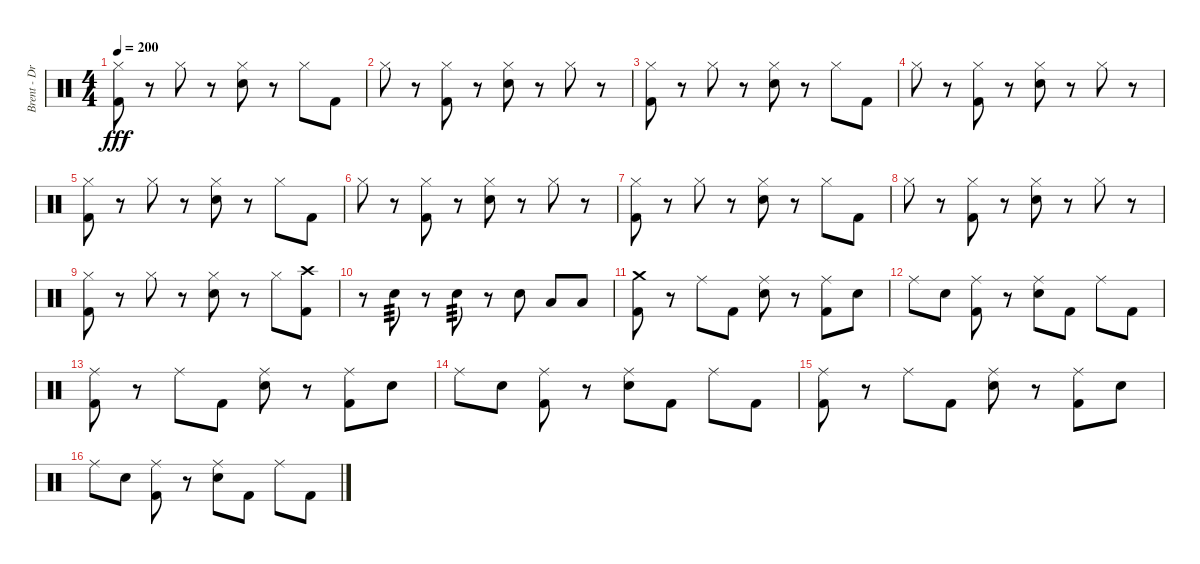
\track ("Brent - Drums" "Brent - Dr") {instrument percussion}
\staff {score}
\articulation defaults
\ts (4 4)
\tempo 200
\clef neutral
\ks c
("Hi-Hat (closed)" "Kick (hit) 2").8{dy fff} r.8 "Hi-Hat (closed)".8 r.8 ("Hi-Hat (closed)" "Snare (hit) 2").8 r.8 "Hi-Hat (closed)".8 "Kick (hit) 2".8 |
"Hi-Hat (closed)".8 r.8 ("Hi-Hat (closed)" "Kick (hit) 2").8 r.8 ("Hi-Hat (closed)" "Snare (hit) 2").8 r.8 "Hi-Hat (closed)".8 r.8 |
("Hi-Hat (closed)" "Kick (hit) 2").8 r.8 "Hi-Hat (closed)".8 r.8 ("Hi-Hat (closed)" "Snare (hit) 2").8 r.8 "Hi-Hat (closed)".8 "Kick (hit) 2".8 |
"Hi-Hat (closed)".8 r.8 ("Hi-Hat (closed)" "Kick (hit) 2").8 r.8 ("Hi-Hat (closed)" "Snare (hit) 2").8 r.8 "Hi-Hat (closed)".8 r.8 |
("Hi-Hat (closed)" "Kick (hit) 2").8 r.8 "Hi-Hat (closed)".8 r.8 ("Hi-Hat (closed)" "Snare (hit) 2").8 r.8 "Hi-Hat (closed)".8 "Kick (hit) 2".8 |
"Hi-Hat (closed)".8 r.8 ("Hi-Hat (closed)" "Kick (hit) 2").8 r.8 ("Hi-Hat (closed)" "Snare (hit) 2").8 r.8 "Hi-Hat (closed)".8 r.8 |
("Hi-Hat (closed)" "Kick (hit) 2").8 r.8 "Hi-Hat (closed)".8 r.8 ("Hi-Hat (closed)" "Snare (hit) 2").8 r.8 "Hi-Hat (closed)".8 "Kick (hit) 2".8 |
"Hi-Hat (closed)".8 r.8 ("Hi-Hat (closed)" "Kick (hit) 2").8 r.8 ("Hi-Hat (closed)" "Snare (hit) 2").8 r.8 "Hi-Hat (closed)".8 r.8 |
("Hi-Hat (closed)" "Kick (hit) 2").8 r.8 "Hi-Hat (closed)".8 r.8 ("Hi-Hat (closed)" "Snare (hit) 2").8 r.8 "Hi-Hat (closed)".8 ("Crash high (hit)" "Kick (hit) 2").8 |
r.8 "Snare (hit) 2".8{tp 3} r.8 "Snare (hit) 2".8{tp 3} r.8 "Snare (hit) 2".8 "Low Tom (hit)".8 "Low Tom (hit)".8 |
("Crash medium (hit)" "Kick (hit) 2").8 r.8 "Ride (middle)".8 "Kick (hit) 2".8 ("Ride (middle)" "Snare (hit) 2").8 r.8 ("Ride (middle)" "Kick (hit) 2").8 "Snare (hit) 2".8 |
"Ride (middle)".8 "Snare (hit) 2".8 ("Ride (middle)" "Kick (hit) 2").8 r.8 ("Ride (middle)" "Snare (hit) 2").8 "Kick (hit) 2".8 "Ride (middle)".8 "Kick (hit) 2".8 |
("Ride (middle)" "Kick (hit) 2").8 r.8 "Ride (middle)".8 "Kick (hit) 2".8 ("Ride (middle)" "Snare (hit) 2").8 r.8 ("Ride (middle)" "Kick (hit) 2").8 "Snare (hit) 2".8 |
"Ride (middle)".8 "Snare (hit) 2".8 ("Ride (middle)" "Kick (hit) 2").8 r.8 ("Ride (middle)" "Snare (hit) 2").8 "Kick (hit) 2".8 "Ride (middle)".8 "Kick (hit) 2".8 |
("Ride (middle)" "Kick (hit) 2").8 r.8 "Ride (middle)".8 "Kick (hit) 2".8 ("Ride (middle)" "Snare (hit) 2").8 r.8 ("Ride (middle)" "Kick (hit) 2").8 "Snare (hit) 2".8 |
"Ride (middle)".8 "Snare (hit) 2".8 ("Ride (middle)" "Kick (hit) 2").8 r.8 ("Ride (middle)" "Snare (hit) 2").8 "Kick (hit) 2".8 "Ride (middle)".8 "Kick (hit) 2".8
